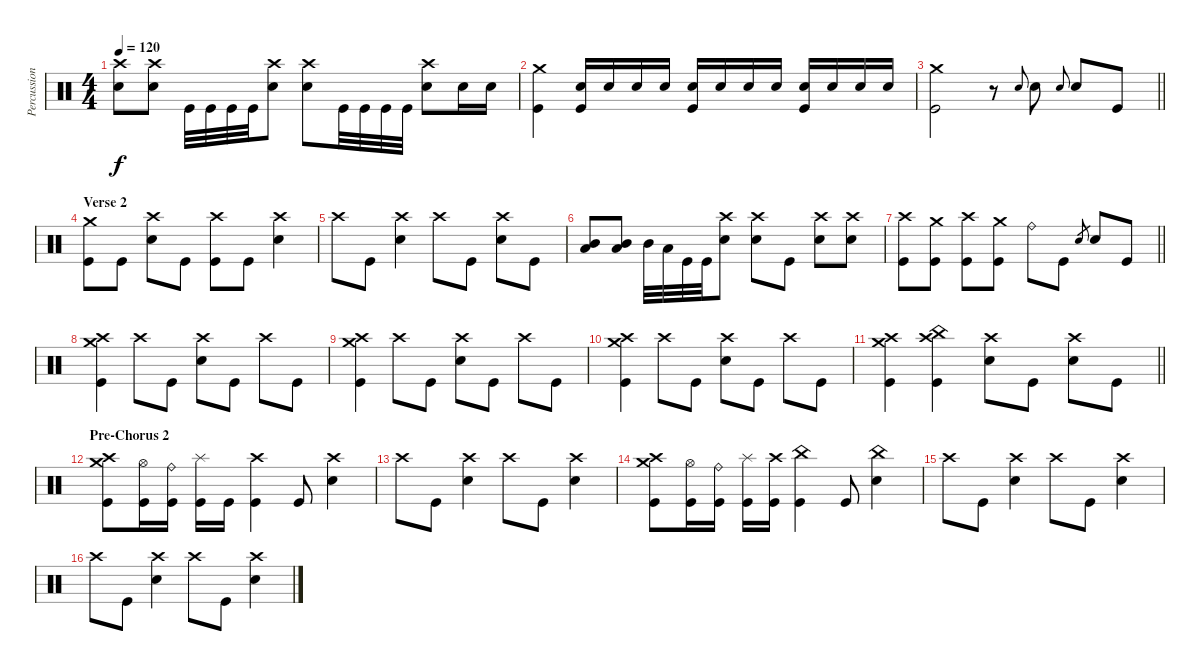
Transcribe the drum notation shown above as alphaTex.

\track ("Percussion" "Percussion") {instrument percussion}
\staff {score}
\articulation defaults
\ts (4 4)
\tempo 120
\clef neutral
\ks c
("Crash high (hit)" "Snare (hit) 2").8{dy f} ("Snare (hit) 2" "Crash high (hit)").8 "Kick (hit)".32 "Kick (hit)".32 "Kick (hit)".32 "Kick (hit)".32 ("Snare (hit) 2" "Crash high (hit)").8 ("Snare (hit) 2" "Crash high (hit)").8 "Kick (hit)".32 "Kick (hit)".32 "Kick (hit)".32 "Kick (hit)".32 ("Snare (hit) 2" "Crash high (hit)").8 "Snare (hit) 2".16 "Snare (hit) 2".16 |
("Crash medium (hit)" "Kick (hit)").4 ("Kick (hit)" "Snare (hit) 2").16{volume 6} "Snare (hit) 2".16{volume 13} "Snare (hit) 2".16 "Snare (hit) 2".16 ("Kick (hit)" "Snare (hit) 2").16 "Snare (hit) 2".16 "Snare (hit) 2".16 "Snare (hit) 2".16 ("Kick (hit)" "Snare (hit) 2").16 "Snare (hit) 2".16 "Snare (hit) 2".16 "Snare (hit) 2".16 |
\barLineRight lightlight
("Crash medium (hit)" "Kick (hit)").2{volume 12} r.8 "Snare (hit) 2".8{gr onbeat} "Snare (hit) 2".8 "Snare (hit) 2".8{gr onbeat} "Snare (hit) 2".8 "Kick (hit)".8 |
\section ("" "Verse 2")
("Crash medium (hit)" "Kick (hit)").8 "Kick (hit)".8 ("Crash high (hit)" "Snare (hit) 2").8 "Kick (hit)".8 ("Kick (hit)" "Crash high (hit)").8 "Kick (hit)".8 ("Snare (hit) 2" "Crash high (hit)").4 |
"Crash high (hit)".8 "Kick (hit)".8 ("Snare (hit) 2" "Crash high (hit)").4 "Crash high (hit)".8 "Kick (hit)".8 ("Snare (hit) 2" "Crash high (hit)").8 "Kick (hit)".8 |
("Mid Tom (hit)" "Low Tom (hit)").8 ("Low Tom (hit)" "Mid Tom (hit)").8 "Mid Tom (hit)".32 "Low Tom (hit)".32 "Kick (hit)".32 "Kick (hit)".32 ("Snare (hit) 2" "Crash high (hit)").8 ("Snare (hit) 2" "Crash high (hit)").8 "Kick (hit)".8 ("Snare (hit) 2" "Crash high (hit)").8 ("Snare (hit) 2" "Crash high (hit)").8 |
\barLineRight lightlight
("Kick (hit)" "Crash high (hit)").8 ("Kick (hit)" "Crash medium (hit)").8 ("Kick (hit)" "Crash high (hit)").8 ("Kick (hit)" "Crash medium (hit)").8 "Ride (bell)".8 "Kick (hit)".8 "Snare (hit) 2".8{gr} "Snare (hit) 2".8 "Kick (hit)".8 |
("Kick (hit)" "Crash high (hit)" "Crash medium (hit)").4 "Crash high (hit)".8 "Kick (hit)".8 ("Snare (hit) 2" "Crash high (hit)").8 "Kick (hit)".8 "Crash high (hit)".8 "Kick (hit)".8 |
("Kick (hit)" "Crash high (hit)" "Crash medium (hit)").4 "Crash high (hit)".8 "Kick (hit)".8 ("Snare (hit) 2" "Crash high (hit)").8 "Kick (hit)".8 "Crash high (hit)".8 "Kick (hit)".8 |
("Kick (hit)" "Crash high (hit)" "Crash medium (hit)").4 "Crash high (hit)".8 "Kick (hit)".8 ("Snare (hit) 2" "Crash high (hit)").8 "Kick (hit)".8 "Crash high (hit)".8 "Kick (hit)".8 |
\barLineRight lightlight
("Kick (hit)" "Crash high (hit)" "Crash medium (hit)").4 ("Crash high (hit)" "China (hit)" "Kick (hit)").4 ("Snare (hit) 2" "Crash high (hit)").8 "Kick (hit)".8 ("Crash high (hit)" "Snare (hit) 2").8 "Kick (hit)".8 |
\section ("" "Pre-Chorus 2")
("Kick (hit)" "Crash high (hit)" "Crash medium (hit)").8 ("Kick (hit)" "Hi-Hat (open)").16 ("Kick (hit)" "Ride (bell)").16 ("Kick (hit)" "Splash (hit)").16 "Kick (hit)".16 ("Kick (hit)" "Crash high (hit)").4 "Kick (hit)".8 ("Snare (hit) 2" "Crash high (hit)").4 |
"Crash high (hit)".8 "Kick (hit)".8 ("Snare (hit) 2" "Crash high (hit)").4 "Crash high (hit)".8 "Kick (hit)".8 ("Snare (hit) 2" "Crash high (hit)").4 |
("Kick (hit)" "Crash high (hit)" "Crash medium (hit)").8 ("Kick (hit)" "Hi-Hat (open)").16 ("Kick (hit)" "Ride (bell)").16 ("Kick (hit)" "Splash (hit)").16 ("Kick (hit)" "Crash high (hit)").16 ("Kick (hit)" "China (hit)").4 "Kick (hit)".8 ("Snare (hit) 2" "China (hit)").4 |
"Crash high (hit)".8 "Kick (hit)".8 ("Snare (hit) 2" "Crash high (hit)").4 "Crash high (hit)".8 "Kick (hit)".8 ("Snare (hit) 2" "Crash high (hit)").4 |
"Crash high (hit)".8 "Kick (hit)".8 ("Snare (hit) 2" "Crash high (hit)").4 "Crash high (hit)".8 "Kick (hit)".8 ("Snare (hit) 2" "Crash high (hit)").4
